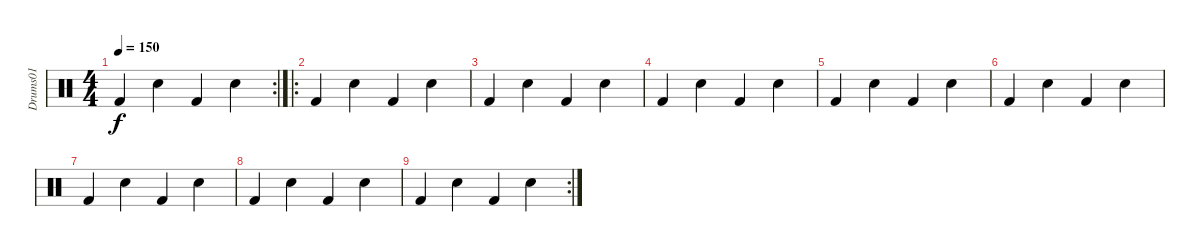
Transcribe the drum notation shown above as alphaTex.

\track ("Drums01" "Drums01") {instrument percussion}
\staff {score}
\articulation defaults
\rc 2
\ts (4 4)
\tempo 150
\clef neutral
\ks c "Kick (hit) 2".4{dy f} "Snare (hit) 2".4 "Kick (hit) 2".4 "Snare (hit) 2".4
|
\ro "Kick (hit) 2".4 "Snare (hit) 2".4 "Kick (hit) 2".4 "Snare (hit) 2".4
|
"Kick (hit) 2".4 "Snare (hit) 2".4 "Kick (hit) 2".4 "Snare (hit) 2".4 |
"Kick (hit) 2".4 "Snare (hit) 2".4 "Kick (hit) 2".4 "Snare (hit) 2".4 |
"Kick (hit) 2".4 "Snare (hit) 2".4 "Kick (hit) 2".4 "Snare (hit) 2".4 |
"Kick (hit) 2".4 "Snare (hit) 2".4 "Kick (hit) 2".4 "Snare (hit) 2".4 |
"Kick (hit) 2".4 "Snare (hit) 2".4 "Kick (hit) 2".4 "Snare (hit) 2".4 |
"Kick (hit) 2".4 "Snare (hit) 2".4 "Kick (hit) 2".4 "Snare (hit) 2".4 |
\rc 2 "Kick (hit) 2".4 "Snare (hit) 2".4 "Kick (hit) 2".4 "Snare (hit) 2".4
